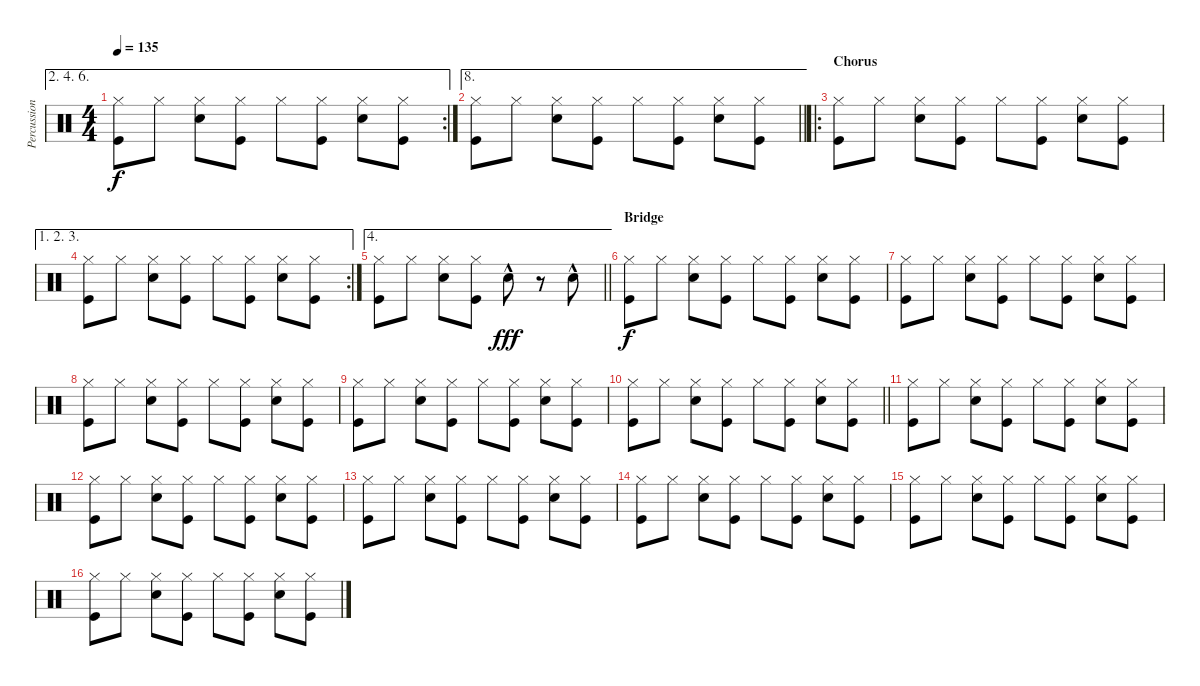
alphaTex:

\track ("Percussions" "Percussion") {instrument percussion}
\staff {score}
\articulation defaults
\ae (2 4 6)
\rc 2
\ts (4 4)
\tempo 135
\clef neutral
\ks c
("Hi-Hat (closed)" "Kick (hit)").8{dy f} "Hi-Hat (closed)".8 ("Hi-Hat (closed)" "Snare (hit) 2").8 ("Hi-Hat (closed)" "Kick (hit)").8 "Hi-Hat (closed)".8 ("Hi-Hat (closed)" "Kick (hit)").8 ("Hi-Hat (closed)" "Snare (hit) 2").8 ("Hi-Hat (closed)" "Kick (hit)").8 |
\ae 8
\barLineRight lightlight
("Hi-Hat (closed)" "Kick (hit)").8 "Hi-Hat (closed)".8 ("Hi-Hat (closed)" "Snare (hit) 2").8 ("Hi-Hat (closed)" "Kick (hit)").8 "Hi-Hat (closed)".8 ("Hi-Hat (closed)" "Kick (hit)").8 ("Hi-Hat (closed)" "Snare (hit) 2").8 ("Hi-Hat (closed)" "Kick (hit)").8 |
\ro
\section ("" "Chorus")
("Hi-Hat (closed)" "Kick (hit)").8 "Hi-Hat (closed)".8 ("Hi-Hat (closed)" "Snare (hit) 2").8 ("Hi-Hat (closed)" "Kick (hit)").8 "Hi-Hat (closed)".8 ("Hi-Hat (closed)" "Kick (hit)").8 ("Hi-Hat (closed)" "Snare (hit) 2").8 ("Hi-Hat (closed)" "Kick (hit)").8 |
\ae (1 2 3)
\rc 2
("Hi-Hat (closed)" "Kick (hit)").8 "Hi-Hat (closed)".8 ("Hi-Hat (closed)" "Snare (hit) 2").8 ("Hi-Hat (closed)" "Kick (hit)").8 "Hi-Hat (closed)".8 ("Hi-Hat (closed)" "Kick (hit)").8 ("Hi-Hat (closed)" "Snare (hit) 2").8 ("Hi-Hat (closed)" "Kick (hit)").8 |
\ae 4
\barLineRight lightlight
("Hi-Hat (closed)" "Kick (hit)").8 "Hi-Hat (closed)".8 ("Hi-Hat (closed)" "Snare (hit) 2").8 ("Hi-Hat (closed)" "Kick (hit)").8 "Snare (hit) 2"{hac}.8{dy fff} r.8 "Snare (hit) 2"{hac}.8 |
\section ("" "Bridge")
("Hi-Hat (closed)" "Kick (hit)").8{dy f} "Hi-Hat (closed)".8 ("Hi-Hat (closed)" "Snare (hit) 2").8 ("Hi-Hat (closed)" "Kick (hit)").8 "Hi-Hat (closed)".8 ("Hi-Hat (closed)" "Kick (hit)").8 ("Hi-Hat (closed)" "Snare (hit) 2").8 ("Hi-Hat (closed)" "Kick (hit)").8 |
("Hi-Hat (closed)" "Kick (hit)").8 "Hi-Hat (closed)".8 ("Hi-Hat (closed)" "Snare (hit) 2").8 ("Hi-Hat (closed)" "Kick (hit)").8 "Hi-Hat (closed)".8 ("Hi-Hat (closed)" "Kick (hit)").8 ("Hi-Hat (closed)" "Snare (hit) 2").8 ("Hi-Hat (closed)" "Kick (hit)").8 |
("Hi-Hat (closed)" "Kick (hit)").8 "Hi-Hat (closed)".8 ("Hi-Hat (closed)" "Snare (hit) 2").8 ("Hi-Hat (closed)" "Kick (hit)").8 "Hi-Hat (closed)".8 ("Hi-Hat (closed)" "Kick (hit)").8 ("Hi-Hat (closed)" "Snare (hit) 2").8 ("Hi-Hat (closed)" "Kick (hit)").8 |
("Hi-Hat (closed)" "Kick (hit)").8 "Hi-Hat (closed)".8 ("Hi-Hat (closed)" "Snare (hit) 2").8 ("Hi-Hat (closed)" "Kick (hit)").8 "Hi-Hat (closed)".8 ("Hi-Hat (closed)" "Kick (hit)").8 ("Hi-Hat (closed)" "Snare (hit) 2").8 ("Hi-Hat (closed)" "Kick (hit)").8 |
\barLineRight lightlight
("Hi-Hat (closed)" "Kick (hit)").8 "Hi-Hat (closed)".8 ("Hi-Hat (closed)" "Snare (hit) 2").8 ("Hi-Hat (closed)" "Kick (hit)").8 "Hi-Hat (closed)".8 ("Hi-Hat (closed)" "Kick (hit)").8 ("Hi-Hat (closed)" "Snare (hit) 2").8 ("Hi-Hat (closed)" "Kick (hit)").8 |
\section ("" "")
("Hi-Hat (closed)" "Kick (hit)").8 "Hi-Hat (closed)".8 ("Hi-Hat (closed)" "Snare (hit) 2").8 ("Hi-Hat (closed)" "Kick (hit)").8 "Hi-Hat (closed)".8 ("Hi-Hat (closed)" "Kick (hit)").8 ("Hi-Hat (closed)" "Snare (hit) 2").8 ("Hi-Hat (closed)" "Kick (hit)").8 |
("Hi-Hat (closed)" "Kick (hit)").8 "Hi-Hat (closed)".8 ("Hi-Hat (closed)" "Snare (hit) 2").8 ("Hi-Hat (closed)" "Kick (hit)").8 "Hi-Hat (closed)".8 ("Hi-Hat (closed)" "Kick (hit)").8 ("Hi-Hat (closed)" "Snare (hit) 2").8 ("Hi-Hat (closed)" "Kick (hit)").8 |
("Hi-Hat (closed)" "Kick (hit)").8 "Hi-Hat (closed)".8 ("Hi-Hat (closed)" "Snare (hit) 2").8 ("Hi-Hat (closed)" "Kick (hit)").8 "Hi-Hat (closed)".8 ("Hi-Hat (closed)" "Kick (hit)").8 ("Hi-Hat (closed)" "Snare (hit) 2").8 ("Hi-Hat (closed)" "Kick (hit)").8 |
("Hi-Hat (closed)" "Kick (hit)").8 "Hi-Hat (closed)".8 ("Hi-Hat (closed)" "Snare (hit) 2").8 ("Hi-Hat (closed)" "Kick (hit)").8 "Hi-Hat (closed)".8 ("Hi-Hat (closed)" "Kick (hit)").8 ("Hi-Hat (closed)" "Snare (hit) 2").8 ("Hi-Hat (closed)" "Kick (hit)").8 |
("Hi-Hat (closed)" "Kick (hit)").8 "Hi-Hat (closed)".8 ("Hi-Hat (closed)" "Snare (hit) 2").8 ("Hi-Hat (closed)" "Kick (hit)").8 "Hi-Hat (closed)".8 ("Hi-Hat (closed)" "Kick (hit)").8 ("Hi-Hat (closed)" "Snare (hit) 2").8 ("Hi-Hat (closed)" "Kick (hit)").8 |
("Hi-Hat (closed)" "Kick (hit)").8 "Hi-Hat (closed)".8 ("Hi-Hat (closed)" "Snare (hit) 2").8 ("Hi-Hat (closed)" "Kick (hit)").8 "Hi-Hat (closed)".8 ("Hi-Hat (closed)" "Kick (hit)").8 ("Hi-Hat (closed)" "Snare (hit) 2").8 ("Hi-Hat (closed)" "Kick (hit)").8
